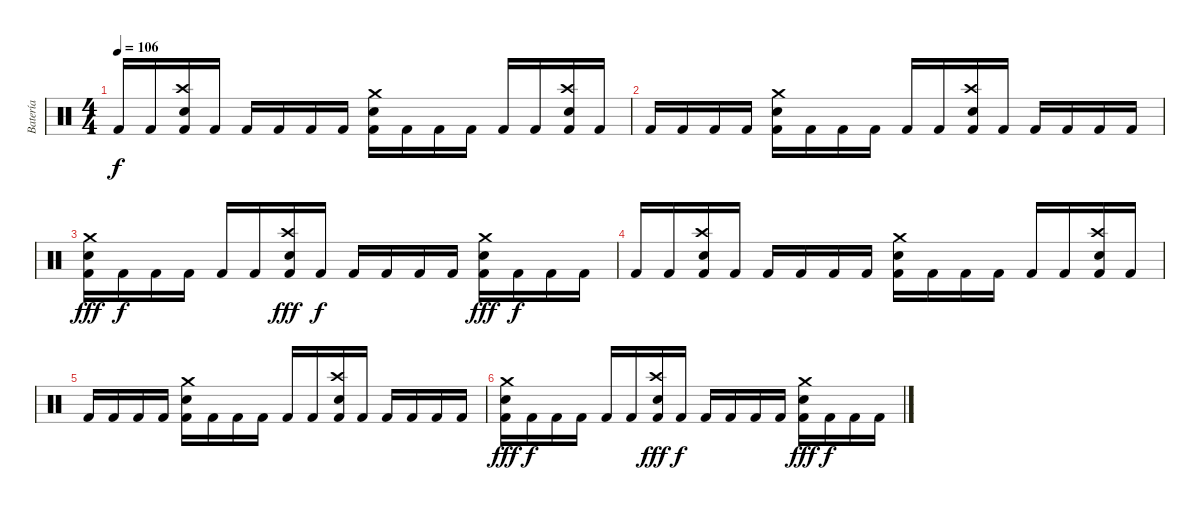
\track ("Batería" "Batería") {instrument percussion}
\staff {score}
\articulation defaults
\ts (4 4)
\tempo 106
\clef neutral
\ks c "Kick (hit) 2".16{dy f volume 4} "Kick (hit) 2".16
("Crash high (hit)" "Electric Snare (hit)" "Kick (hit) 2").16 "Kick (hit) 2".16 "Kick (hit) 2".16 "Kick (hit) 2".16 "Kick (hit) 2".16 "Kick (hit) 2".16 ("Crash medium (hit)" "Electric Snare (hit)" "Kick (hit) 2").16 "Kick (hit) 2".16 "Kick (hit) 2".16 "Kick (hit) 2".16 "Kick (hit) 2".16 "Kick (hit) 2".16 ("Crash high (hit)" "Electric Snare (hit)" "Kick (hit) 2").16 "Kick (hit) 2".16 |
"Kick (hit) 2".16 "Kick (hit) 2".16 "Kick (hit) 2".16 "Kick (hit) 2".16 ("Crash medium (hit)" "Electric Snare (hit)" "Kick (hit) 2").16 "Kick (hit) 2".16 "Kick (hit) 2".16 "Kick (hit) 2".16 "Kick (hit) 2".16 "Kick (hit) 2".16 ("Crash high (hit)" "Electric Snare (hit)" "Kick (hit) 2").16 "Kick (hit) 2".16 "Kick (hit) 2".16 "Kick (hit) 2".16 "Kick (hit) 2".16 "Kick (hit) 2".16 |
("Crash medium (hit)" "Electric Snare (hit)" "Kick (hit) 2").16{dy fff} "Kick (hit) 2".16{dy f} "Kick (hit) 2".16 "Kick (hit) 2".16 "Kick (hit) 2".16 "Kick (hit) 2".16 ("Crash high (hit)" "Electric Snare (hit)" "Kick (hit) 2").16{dy fff} "Kick (hit) 2".16{dy f} "Kick (hit) 2".16 "Kick (hit) 2".16 "Kick (hit) 2".16 "Kick (hit) 2".16 ("Crash medium (hit)" "Electric Snare (hit)" "Kick (hit) 2").16{dy fff} "Kick (hit) 2".16{dy f} "Kick (hit) 2".16 "Kick (hit) 2".16 |
"Kick (hit) 2".16 "Kick (hit) 2".16 ("Crash high (hit)" "Electric Snare (hit)" "Kick (hit) 2").16 "Kick (hit) 2".16 "Kick (hit) 2".16 "Kick (hit) 2".16 "Kick (hit) 2".16 "Kick (hit) 2".16 ("Crash medium (hit)" "Electric Snare (hit)" "Kick (hit) 2").16 "Kick (hit) 2".16 "Kick (hit) 2".16 "Kick (hit) 2".16 "Kick (hit) 2".16 "Kick (hit) 2".16 ("Crash high (hit)" "Electric Snare (hit)" "Kick (hit) 2").16 "Kick (hit) 2".16 |
"Kick (hit) 2".16{volume 0} "Kick (hit) 2".16 "Kick (hit) 2".16 "Kick (hit) 2".16 ("Crash medium (hit)" "Electric Snare (hit)" "Kick (hit) 2").16 "Kick (hit) 2".16 "Kick (hit) 2".16 "Kick (hit) 2".16 "Kick (hit) 2".16 "Kick (hit) 2".16 ("Crash high (hit)" "Electric Snare (hit)" "Kick (hit) 2").16 "Kick (hit) 2".16 "Kick (hit) 2".16 "Kick (hit) 2".16 "Kick (hit) 2".16 "Kick (hit) 2".16 |
("Crash medium (hit)" "Electric Snare (hit)" "Kick (hit) 2").16{dy fff} "Kick (hit) 2".16{dy f} "Kick (hit) 2".16 "Kick (hit) 2".16 "Kick (hit) 2".16 "Kick (hit) 2".16 ("Crash high (hit)" "Electric Snare (hit)" "Kick (hit) 2").16{dy fff} "Kick (hit) 2".16{dy f} "Kick (hit) 2".16 "Kick (hit) 2".16 "Kick (hit) 2".16 "Kick (hit) 2".16 ("Crash medium (hit)" "Electric Snare (hit)" "Kick (hit) 2").16{dy fff} "Kick (hit) 2".16{dy f} "Kick (hit) 2".16 "Kick (hit) 2".16
